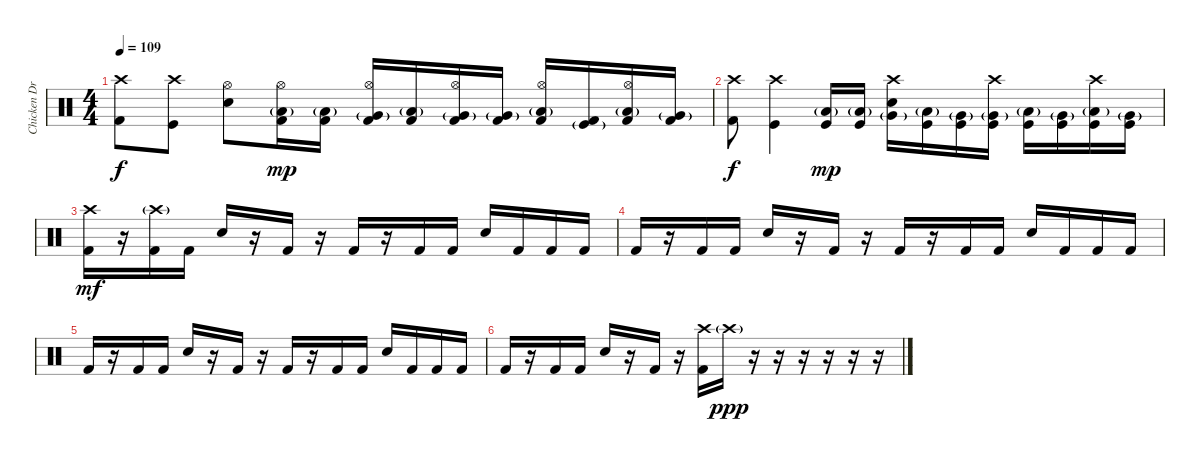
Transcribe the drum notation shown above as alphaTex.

\track ("Chicken Drum" "Chicken Dr") {instrument percussion}
\staff {score}
\articulation defaults
\ts (4 4)
\tempo 109
\clef neutral
\ks c
("Crash high (hit)" "Kick (hit) 2").8{dy f} ("Crash high (hit)" "Kick (hit)").8 ("Hi-Hat (open)" "Snare (hit) 2").8 ("Hi-Hat (open)" "Low Floor Tom (hit)"{g} "Kick (hit) 2").16{dy mp} ("Low Floor Tom (hit)"{g} "Kick (hit) 2").16 ("Hi-Hat (open)" "Very Low Tom (hit)"{g} "Kick (hit) 2").16 ("Low Tom (hit)"{g} "Kick (hit) 2").16 ("Hi-Hat (open)" "Very Low Tom (hit)"{g} "Kick (hit) 2").16 ("Very Low Tom (hit)"{g} "Kick (hit) 2").16 ("Hi-Hat (open)" "Low Tom (hit)"{g} "Kick (hit) 2").16 ("Kick (hit)"{g} "Kick (hit) 2").16 ("Hi-Hat (open)" "Low Tom (hit)"{g} "Kick (hit) 2").16 ("Very Low Tom (hit)"{g} "Kick (hit) 2").16 |
("Crash high (hit)" "Kick (hit) 2").8{dy f} ("Crash high (hit)" "Kick (hit)").4 ("Low Floor Tom (hit)"{g} "Kick (hit)").16{dy mp} ("Low Floor Tom (hit)"{g} "Kick (hit)").16 ("Crash high (hit)" "Very Low Tom (hit)"{g} "Snare (hit) 2").16 ("Low Tom (hit)"{g} "Kick (hit)").16 ("Very Low Tom (hit)"{g} "Kick (hit)").16 ("Crash high (hit)" "Very Low Tom (hit)"{g} "Kick (hit)").16 ("Low Tom (hit)"{g} "Kick (hit)").16 ("Very Low Tom (hit)"{g} "Kick (hit)").16 ("Crash high (hit)" "Low Tom (hit)"{g} "Kick (hit)").16 ("Very Low Tom (hit)"{g} "Kick (hit)").16 |
("Crash high (hit)" "Kick (hit) 2").16{dy mf} r.16 ("Crash high (hit)"{g} "Kick (hit) 2").16 "Kick (hit) 2".16 "Snare (hit) 2".16 r.16 "Kick (hit) 2".16 r.16 "Kick (hit) 2".16 r.16 "Kick (hit) 2".16 "Kick (hit) 2".16 "Snare (hit) 2".16 "Kick (hit) 2".16 "Kick (hit) 2".16 "Kick (hit) 2".16 |
"Kick (hit) 2".16 r.16 "Kick (hit) 2".16 "Kick (hit) 2".16 "Snare (hit) 2".16 r.16 "Kick (hit) 2".16 r.16 "Kick (hit) 2".16 r.16 "Kick (hit) 2".16 "Kick (hit) 2".16 "Snare (hit) 2".16 "Kick (hit) 2".16 "Kick (hit) 2".16 "Kick (hit) 2".16 |
"Kick (hit) 2".16 r.16 "Kick (hit) 2".16 "Kick (hit) 2".16 "Snare (hit) 2".16 r.16 "Kick (hit) 2".16 r.16 "Kick (hit) 2".16 r.16 "Kick (hit) 2".16 "Kick (hit) 2".16 "Snare (hit) 2".16 "Kick (hit) 2".16 "Kick (hit) 2".16 "Kick (hit) 2".16 |
"Kick (hit) 2".16 r.16 "Kick (hit) 2".16 "Kick (hit) 2".16 "Snare (hit) 2".16 r.16 "Kick (hit) 2".16 r.16 ("Crash high (hit)" "Kick (hit) 2").16 "Crash high (hit)"{g}.16{dy ppp} r.16 r.16 r.16 r.16 r.16 r.16
